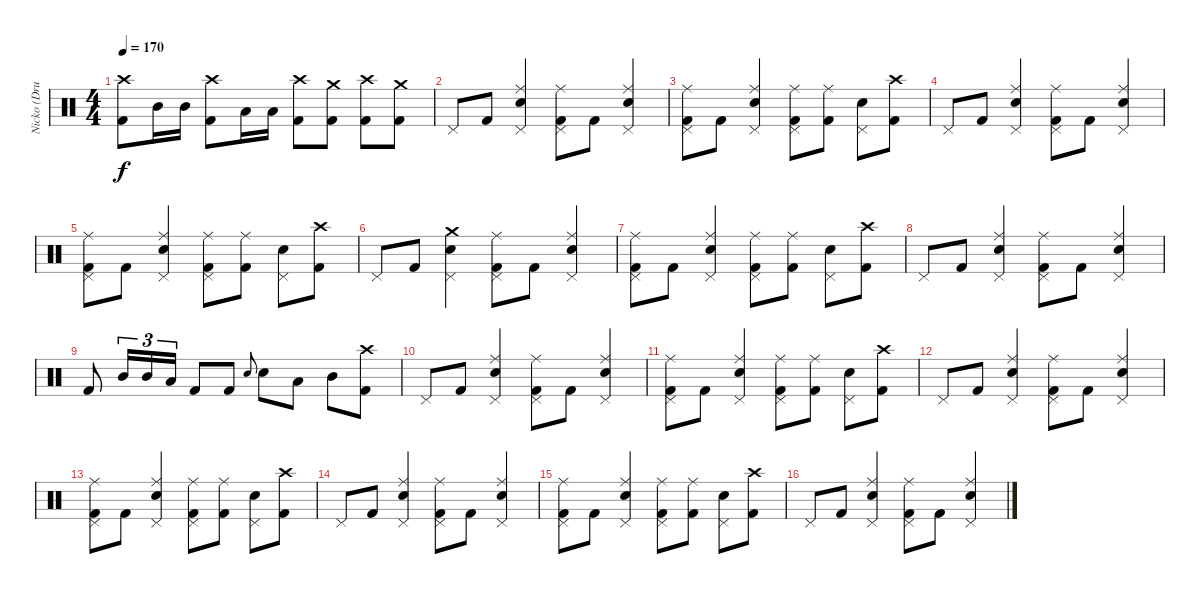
\track ("Nicko (Drums)" "Nicko (Dru") {instrument percussion}
\staff {score}
\articulation defaults
\ts (4 4)
\tempo 170
\clef neutral
\ks c
("Crash high (hit)" "Kick (hit) 2").8{dy f} "Mid Tom (hit)".16 "Mid Tom (hit)".16 ("Crash high (hit)" "Kick (hit) 2").8 "Low Tom (hit)".16 "Low Tom (hit)".16 ("Crash high (hit)" "Kick (hit) 2").8 ("Crash medium (hit)" "Kick (hit) 2").8 ("Crash high (hit)" "Kick (hit) 2").8 ("Crash medium (hit)" "Kick (hit) 2").8 |
"Pedal Hi-Hat (hit)".8 "Kick (hit) 2".8 ("Ride (middle)" "Snare (hit) 2" "Pedal Hi-Hat (hit)").4 ("Ride (middle)" "Pedal Hi-Hat (hit)" "Kick (hit) 2").8 "Kick (hit) 2".8 ("Ride (middle)" "Snare (hit) 2" "Pedal Hi-Hat (hit)").4 |
("Ride (middle)" "Pedal Hi-Hat (hit)" "Kick (hit) 2").8 "Kick (hit) 2".8 ("Ride (middle)" "Snare (hit) 2" "Pedal Hi-Hat (hit)").4 ("Ride (middle)" "Pedal Hi-Hat (hit)" "Kick (hit) 2").8 ("Ride (middle)" "Kick (hit) 2").8 ("Snare (hit) 2" "Pedal Hi-Hat (hit)").8 ("Crash high (hit)" "Kick (hit) 2").8 |
"Pedal Hi-Hat (hit)".8 "Kick (hit) 2".8 ("Ride (middle)" "Snare (hit) 2" "Pedal Hi-Hat (hit)").4 ("Ride (middle)" "Pedal Hi-Hat (hit)" "Kick (hit) 2").8 "Kick (hit) 2".8 ("Ride (middle)" "Snare (hit) 2" "Pedal Hi-Hat (hit)").4 |
("Ride (middle)" "Pedal Hi-Hat (hit)" "Kick (hit) 2").8 "Kick (hit) 2".8 ("Ride (middle)" "Snare (hit) 2" "Pedal Hi-Hat (hit)").4 ("Ride (middle)" "Pedal Hi-Hat (hit)" "Kick (hit) 2").8 ("Ride (middle)" "Kick (hit) 2").8 ("Snare (hit) 2" "Pedal Hi-Hat (hit)").8 ("Crash high (hit)" "Kick (hit) 2").8 |
"Pedal Hi-Hat (hit)".8 "Kick (hit) 2".8 ("Crash medium (hit)" "Snare (hit) 2" "Pedal Hi-Hat (hit)").4 ("Ride (middle)" "Pedal Hi-Hat (hit)" "Kick (hit) 2").8 "Kick (hit) 2".8 ("Ride (middle)" "Snare (hit) 2" "Pedal Hi-Hat (hit)").4 |
("Ride (middle)" "Pedal Hi-Hat (hit)" "Kick (hit) 2").8 "Kick (hit) 2".8 ("Ride (middle)" "Snare (hit) 2" "Pedal Hi-Hat (hit)").4 ("Ride (middle)" "Pedal Hi-Hat (hit)" "Kick (hit) 2").8 ("Ride (middle)" "Kick (hit) 2").8 ("Snare (hit) 2" "Pedal Hi-Hat (hit)").8 ("Crash high (hit)" "Kick (hit) 2").8 |
"Pedal Hi-Hat (hit)".8 "Kick (hit) 2".8 ("Ride (middle)" "Snare (hit) 2" "Pedal Hi-Hat (hit)").4 ("Ride (middle)" "Pedal Hi-Hat (hit)" "Kick (hit) 2").8 "Kick (hit) 2".8 ("Ride (middle)" "Snare (hit) 2" "Pedal Hi-Hat (hit)").4 |
"Kick (hit) 2".8 "Mid Tom (hit)".16{tu (3 2)} "Mid Tom (hit)".16{tu (3 2)} "Low Tom (hit)".16{tu (3 2)} "Kick (hit) 2".8 "Kick (hit) 2".8 "Snare (hit) 2".8{gr onbeat} "Snare (hit) 2".8 "Low Floor Tom (hit)".8 "Mid Tom (hit)".8 ("Crash high (hit)" "Kick (hit) 2").8 |
"Pedal Hi-Hat (hit)".8 "Kick (hit) 2".8 ("Ride (middle)" "Snare (hit) 2" "Pedal Hi-Hat (hit)").4 ("Ride (middle)" "Pedal Hi-Hat (hit)" "Kick (hit) 2").8 "Kick (hit) 2".8 ("Ride (middle)" "Snare (hit) 2" "Pedal Hi-Hat (hit)").4 |
("Ride (middle)" "Pedal Hi-Hat (hit)" "Kick (hit) 2").8 "Kick (hit) 2".8 ("Ride (middle)" "Snare (hit) 2" "Pedal Hi-Hat (hit)").4 ("Ride (middle)" "Pedal Hi-Hat (hit)" "Kick (hit) 2").8 ("Ride (middle)" "Kick (hit) 2").8 ("Snare (hit) 2" "Pedal Hi-Hat (hit)").8 ("Crash high (hit)" "Kick (hit) 2").8 |
"Pedal Hi-Hat (hit)".8 "Kick (hit) 2".8 ("Ride (middle)" "Snare (hit) 2" "Pedal Hi-Hat (hit)").4 ("Ride (middle)" "Pedal Hi-Hat (hit)" "Kick (hit) 2").8 "Kick (hit) 2".8 ("Ride (middle)" "Snare (hit) 2" "Pedal Hi-Hat (hit)").4 |
("Ride (middle)" "Pedal Hi-Hat (hit)" "Kick (hit) 2").8 "Kick (hit) 2".8 ("Ride (middle)" "Snare (hit) 2" "Pedal Hi-Hat (hit)").4 ("Ride (middle)" "Pedal Hi-Hat (hit)" "Kick (hit) 2").8 ("Ride (middle)" "Kick (hit) 2").8 ("Snare (hit) 2" "Pedal Hi-Hat (hit)").8 ("Crash high (hit)" "Kick (hit) 2").8 |
"Pedal Hi-Hat (hit)".8 "Kick (hit) 2".8 ("Ride (middle)" "Snare (hit) 2" "Pedal Hi-Hat (hit)").4 ("Ride (middle)" "Pedal Hi-Hat (hit)" "Kick (hit) 2").8 "Kick (hit) 2".8 ("Ride (middle)" "Snare (hit) 2" "Pedal Hi-Hat (hit)").4 |
("Ride (middle)" "Pedal Hi-Hat (hit)" "Kick (hit) 2").8 "Kick (hit) 2".8 ("Ride (middle)" "Snare (hit) 2" "Pedal Hi-Hat (hit)").4 ("Ride (middle)" "Pedal Hi-Hat (hit)" "Kick (hit) 2").8 ("Ride (middle)" "Kick (hit) 2").8 ("Snare (hit) 2" "Pedal Hi-Hat (hit)").8 ("Crash high (hit)" "Kick (hit) 2").8 |
"Pedal Hi-Hat (hit)".8 "Kick (hit) 2".8 ("Ride (middle)" "Snare (hit) 2" "Pedal Hi-Hat (hit)").4 ("Ride (middle)" "Pedal Hi-Hat (hit)" "Kick (hit) 2").8 "Kick (hit) 2".8 ("Ride (middle)" "Snare (hit) 2" "Pedal Hi-Hat (hit)").4
